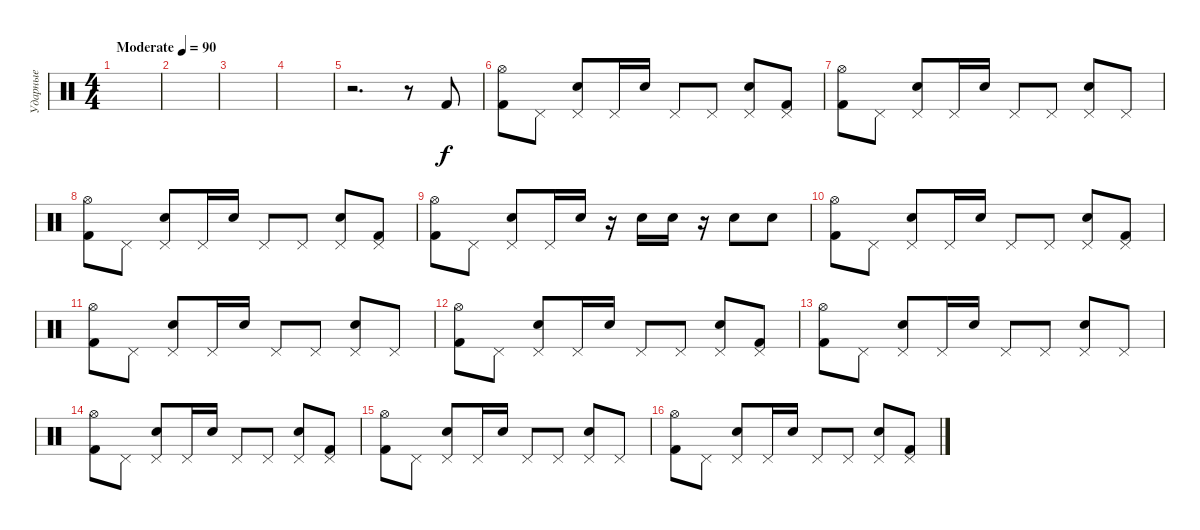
\track ("Ударные" "Ударные") {instrument percussion}
\staff {score}
\articulation defaults
\ts (4 4)
\tempo (90 "Moderate")
\clef neutral
\ks c
|
|
|
|
r.2{d} r.8 "Kick (hit) 2".8 |
("Hi-Hat (open)" "Kick (hit) 2").8 "Pedal Hi-Hat (hit)".8 ("Pedal Hi-Hat (hit)" "Electric Snare (hit)").8 "Pedal Hi-Hat (hit)".16 "Electric Snare (hit)".16 "Pedal Hi-Hat (hit)".8 "Pedal Hi-Hat (hit)".8 ("Pedal Hi-Hat (hit)" "Electric Snare (hit)").8 ("Pedal Hi-Hat (hit)" "Kick (hit) 2").8 |
("Hi-Hat (open)" "Kick (hit) 2").8 "Pedal Hi-Hat (hit)".8 ("Pedal Hi-Hat (hit)" "Electric Snare (hit)").8 "Pedal Hi-Hat (hit)".16 "Electric Snare (hit)".16 "Pedal Hi-Hat (hit)".8 "Pedal Hi-Hat (hit)".8 ("Pedal Hi-Hat (hit)" "Electric Snare (hit)").8 "Pedal Hi-Hat (hit)".8 |
("Hi-Hat (open)" "Kick (hit) 2").8 "Pedal Hi-Hat (hit)".8 ("Pedal Hi-Hat (hit)" "Electric Snare (hit)").8 "Pedal Hi-Hat (hit)".16 "Electric Snare (hit)".16 "Pedal Hi-Hat (hit)".8 "Pedal Hi-Hat (hit)".8 ("Pedal Hi-Hat (hit)" "Electric Snare (hit)").8 ("Pedal Hi-Hat (hit)" "Kick (hit) 2").8 |
("Hi-Hat (open)" "Kick (hit) 2").8 "Pedal Hi-Hat (hit)".8 ("Pedal Hi-Hat (hit)" "Electric Snare (hit)").8 "Pedal Hi-Hat (hit)".16 "Electric Snare (hit)".16 r.16 "Electric Snare (hit)".16 "Electric Snare (hit)".16 r.16 "Electric Snare (hit)".8 "Electric Snare (hit)".8 |
("Hi-Hat (open)" "Kick (hit) 2").8 "Pedal Hi-Hat (hit)".8 ("Pedal Hi-Hat (hit)" "Electric Snare (hit)").8 "Pedal Hi-Hat (hit)".16 "Electric Snare (hit)".16 "Pedal Hi-Hat (hit)".8 "Pedal Hi-Hat (hit)".8 ("Pedal Hi-Hat (hit)" "Electric Snare (hit)").8 ("Pedal Hi-Hat (hit)" "Kick (hit) 2").8 |
("Hi-Hat (open)" "Kick (hit) 2").8 "Pedal Hi-Hat (hit)".8 ("Pedal Hi-Hat (hit)" "Electric Snare (hit)").8 "Pedal Hi-Hat (hit)".16 "Electric Snare (hit)".16 "Pedal Hi-Hat (hit)".8 "Pedal Hi-Hat (hit)".8 ("Pedal Hi-Hat (hit)" "Electric Snare (hit)").8 "Pedal Hi-Hat (hit)".8 |
("Hi-Hat (open)" "Kick (hit) 2").8 "Pedal Hi-Hat (hit)".8 ("Pedal Hi-Hat (hit)" "Electric Snare (hit)").8 "Pedal Hi-Hat (hit)".16 "Electric Snare (hit)".16 "Pedal Hi-Hat (hit)".8 "Pedal Hi-Hat (hit)".8 ("Pedal Hi-Hat (hit)" "Electric Snare (hit)").8 ("Pedal Hi-Hat (hit)" "Kick (hit) 2").8 |
("Hi-Hat (open)" "Kick (hit) 2").8 "Pedal Hi-Hat (hit)".8 ("Pedal Hi-Hat (hit)" "Electric Snare (hit)").8 "Pedal Hi-Hat (hit)".16 "Electric Snare (hit)".16 "Pedal Hi-Hat (hit)".8 "Pedal Hi-Hat (hit)".8 ("Pedal Hi-Hat (hit)" "Electric Snare (hit)").8 "Pedal Hi-Hat (hit)".8 |
("Hi-Hat (open)" "Kick (hit) 2").8 "Pedal Hi-Hat (hit)".8 ("Pedal Hi-Hat (hit)" "Electric Snare (hit)").8 "Pedal Hi-Hat (hit)".16 "Electric Snare (hit)".16 "Pedal Hi-Hat (hit)".8 "Pedal Hi-Hat (hit)".8 ("Pedal Hi-Hat (hit)" "Electric Snare (hit)").8 ("Pedal Hi-Hat (hit)" "Kick (hit) 2").8 |
("Hi-Hat (open)" "Kick (hit) 2").8 "Pedal Hi-Hat (hit)".8 ("Pedal Hi-Hat (hit)" "Electric Snare (hit)").8 "Pedal Hi-Hat (hit)".16 "Electric Snare (hit)".16 "Pedal Hi-Hat (hit)".8 "Pedal Hi-Hat (hit)".8 ("Pedal Hi-Hat (hit)" "Electric Snare (hit)").8 "Pedal Hi-Hat (hit)".8 |
("Hi-Hat (open)" "Kick (hit) 2").8 "Pedal Hi-Hat (hit)".8 ("Pedal Hi-Hat (hit)" "Electric Snare (hit)").8 "Pedal Hi-Hat (hit)".16 "Electric Snare (hit)".16 "Pedal Hi-Hat (hit)".8 "Pedal Hi-Hat (hit)".8 ("Pedal Hi-Hat (hit)" "Electric Snare (hit)").8 ("Pedal Hi-Hat (hit)" "Kick (hit) 2").8
